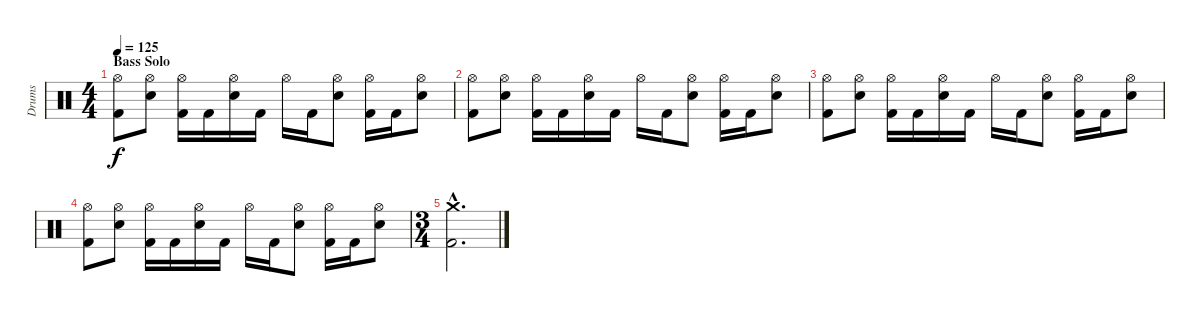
\track ("Drums" "Drums") {instrument percussion}
\staff {score}
\articulation defaults
\ts (4 4)
\section ("" "Bass Solo")
\tempo 125
\clef neutral
\ks c
("Hi-Hat (open)" "Kick (hit) 2").8{dy f} ("Hi-Hat (open)" "Electric Snare (hit)").8 ("Hi-Hat (open)" "Kick (hit) 2").16 "Kick (hit) 2".16 ("Hi-Hat (open)" "Electric Snare (hit)").16 "Kick (hit) 2".16 "Hi-Hat (open)".16 "Kick (hit) 2".16 ("Hi-Hat (open)" "Electric Snare (hit)").8 ("Hi-Hat (open)" "Kick (hit) 2").16 "Kick (hit) 2".16 ("Hi-Hat (open)" "Electric Snare (hit)").8 |
("Hi-Hat (open)" "Kick (hit) 2").8 ("Hi-Hat (open)" "Electric Snare (hit)").8 ("Hi-Hat (open)" "Kick (hit) 2").16 "Kick (hit) 2".16 ("Hi-Hat (open)" "Electric Snare (hit)").16 "Kick (hit) 2".16 "Hi-Hat (open)".16 "Kick (hit) 2".16 ("Hi-Hat (open)" "Electric Snare (hit)").8 ("Hi-Hat (open)" "Kick (hit) 2").16 "Kick (hit) 2".16 ("Hi-Hat (open)" "Electric Snare (hit)").8 |
("Hi-Hat (open)" "Kick (hit) 2").8 ("Hi-Hat (open)" "Electric Snare (hit)").8 ("Hi-Hat (open)" "Kick (hit) 2").16 "Kick (hit) 2".16 ("Hi-Hat (open)" "Electric Snare (hit)").16 "Kick (hit) 2".16 "Hi-Hat (open)".16 "Kick (hit) 2".16 ("Hi-Hat (open)" "Electric Snare (hit)").8 ("Hi-Hat (open)" "Kick (hit) 2").16 "Kick (hit) 2".16 ("Hi-Hat (open)" "Electric Snare (hit)").8 |
("Hi-Hat (open)" "Kick (hit) 2").8 ("Hi-Hat (open)" "Electric Snare (hit)").8 ("Hi-Hat (open)" "Kick (hit) 2").16 "Kick (hit) 2".16 ("Hi-Hat (open)" "Electric Snare (hit)").16 "Kick (hit) 2".16 "Hi-Hat (open)".16 "Kick (hit) 2".16 ("Hi-Hat (open)" "Electric Snare (hit)").8 ("Hi-Hat (open)" "Kick (hit) 2").16 "Kick (hit) 2".16 ("Hi-Hat (open)" "Electric Snare (hit)").8 |
\ts (3 4)
("Crash medium (hit)"{hac} "Kick (hit) 2"{hac}).2{d}
